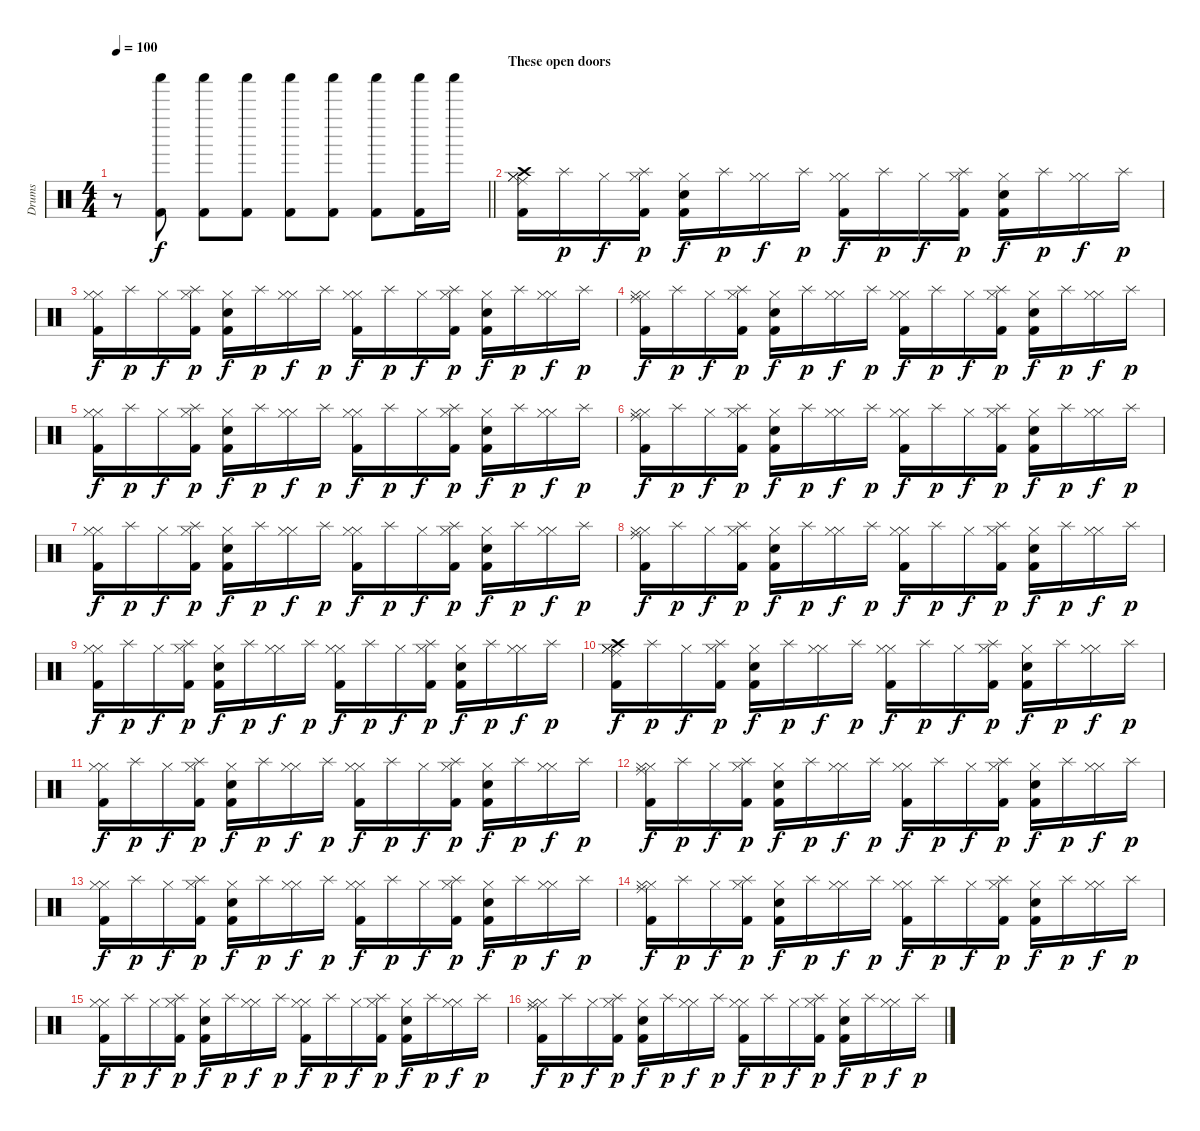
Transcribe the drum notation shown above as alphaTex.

\track ("Drums" "Drums") {instrument percussion}
\staff {score}
\articulation defaults
\ts (4 4)
\tempo 100
\clef neutral
\barLineRight lightlight
\ks c
r.8{dy p} ("Shaker (hit)" "Kick (hit) 2").8{dy f} ("Shaker (hit)" "Kick (hit) 2").8 ("Shaker (hit)" "Kick (hit) 2").8 ("Shaker (hit)" "Kick (hit) 2").8 ("Shaker (hit)" "Kick (hit) 2").8 ("Shaker (hit)" "Kick (hit) 2").8 ("Shaker (hit)" "Kick (hit) 2").16 "Shaker (hit)".16 |
\section ("" "These open doors")
("Ride (middle)" "Crash high (hit)" "Hi-Hat (closed)" "Hi-Hat (closed)" "Kick (hit) 2").16 "Splash (hit)".16{dy p} "Hi-Hat (closed)".16{dy f} ("Splash (hit)" "Hi-Hat (closed)" "Kick (hit) 2").16{dy p} ("Electric Snare (hit)" "Hi-Hat (closed)" "Kick (hit) 2").16{dy f} "Splash (hit)".16{dy p} ("Hi-Hat (closed)" "Hi-Hat (closed)").16{dy f} "Splash (hit)".16{dy p} ("Hi-Hat (closed)" "Hi-Hat (closed)" "Kick (hit) 2").16{dy f} "Splash (hit)".16{dy p} "Hi-Hat (closed)".16{dy f} ("Splash (hit)" "Hi-Hat (closed)" "Kick (hit) 2").16{dy p} ("Electric Snare (hit)" "Hi-Hat (closed)" "Kick (hit) 2").16{dy f} "Splash (hit)".16{dy p} ("Hi-Hat (closed)" "Hi-Hat (closed)").16{dy f} "Splash (hit)".16{dy p} |
("Hi-Hat (closed)" "Hi-Hat (closed)" "Kick (hit) 2").16{dy f} "Splash (hit)".16{dy p} "Hi-Hat (closed)".16{dy f} ("Splash (hit)" "Hi-Hat (closed)" "Kick (hit) 2").16{dy p} ("Electric Snare (hit)" "Hi-Hat (closed)" "Kick (hit) 2").16{dy f} "Splash (hit)".16{dy p} ("Hi-Hat (closed)" "Hi-Hat (closed)").16{dy f} "Splash (hit)".16{dy p} ("Hi-Hat (closed)" "Hi-Hat (closed)" "Kick (hit) 2").16{dy f} "Splash (hit)".16{dy p} "Hi-Hat (closed)".16{dy f} ("Splash (hit)" "Hi-Hat (closed)" "Kick (hit) 2").16{dy p} ("Electric Snare (hit)" "Hi-Hat (closed)" "Kick (hit) 2").16{dy f} "Splash (hit)".16{dy p} ("Hi-Hat (closed)" "Hi-Hat (closed)").16{dy f} "Splash (hit)".16{dy p} |
("Ride (middle)" "Hi-Hat (closed)" "Hi-Hat (closed)" "Kick (hit) 2").16{dy f} "Splash (hit)".16{dy p} "Hi-Hat (closed)".16{dy f} ("Splash (hit)" "Hi-Hat (closed)" "Kick (hit) 2").16{dy p} ("Electric Snare (hit)" "Hi-Hat (closed)" "Kick (hit) 2").16{dy f} "Splash (hit)".16{dy p} ("Hi-Hat (closed)" "Hi-Hat (closed)").16{dy f} "Splash (hit)".16{dy p} ("Hi-Hat (closed)" "Hi-Hat (closed)" "Kick (hit) 2").16{dy f} "Splash (hit)".16{dy p} "Hi-Hat (closed)".16{dy f} ("Splash (hit)" "Hi-Hat (closed)" "Kick (hit) 2").16{dy p} ("Electric Snare (hit)" "Hi-Hat (closed)" "Kick (hit) 2").16{dy f} "Splash (hit)".16{dy p} ("Hi-Hat (closed)" "Hi-Hat (closed)").16{dy f} "Splash (hit)".16{dy p} |
("Hi-Hat (closed)" "Hi-Hat (closed)" "Kick (hit) 2").16{dy f} "Splash (hit)".16{dy p} "Hi-Hat (closed)".16{dy f} ("Splash (hit)" "Hi-Hat (closed)" "Kick (hit) 2").16{dy p} ("Electric Snare (hit)" "Hi-Hat (closed)" "Kick (hit) 2").16{dy f} "Splash (hit)".16{dy p} ("Hi-Hat (closed)" "Hi-Hat (closed)").16{dy f} "Splash (hit)".16{dy p} ("Hi-Hat (closed)" "Hi-Hat (closed)" "Kick (hit) 2").16{dy f} "Splash (hit)".16{dy p} "Hi-Hat (closed)".16{dy f} ("Splash (hit)" "Hi-Hat (closed)" "Kick (hit) 2").16{dy p} ("Electric Snare (hit)" "Hi-Hat (closed)" "Kick (hit) 2").16{dy f} "Splash (hit)".16{dy p} ("Hi-Hat (closed)" "Hi-Hat (closed)").16{dy f} "Splash (hit)".16{dy p} |
("Ride (middle)" "Hi-Hat (closed)" "Hi-Hat (closed)" "Kick (hit) 2").16{dy f} "Splash (hit)".16{dy p} "Hi-Hat (closed)".16{dy f} ("Splash (hit)" "Hi-Hat (closed)" "Kick (hit) 2").16{dy p} ("Electric Snare (hit)" "Hi-Hat (closed)" "Kick (hit) 2").16{dy f} "Splash (hit)".16{dy p} ("Hi-Hat (closed)" "Hi-Hat (closed)").16{dy f} "Splash (hit)".16{dy p} ("Hi-Hat (closed)" "Hi-Hat (closed)" "Kick (hit) 2").16{dy f} "Splash (hit)".16{dy p} "Hi-Hat (closed)".16{dy f} ("Splash (hit)" "Hi-Hat (closed)" "Kick (hit) 2").16{dy p} ("Electric Snare (hit)" "Hi-Hat (closed)" "Kick (hit) 2").16{dy f} "Splash (hit)".16{dy p} ("Hi-Hat (closed)" "Hi-Hat (closed)").16{dy f} "Splash (hit)".16{dy p} |
("Hi-Hat (closed)" "Hi-Hat (closed)" "Kick (hit) 2").16{dy f} "Splash (hit)".16{dy p} "Hi-Hat (closed)".16{dy f} ("Splash (hit)" "Hi-Hat (closed)" "Kick (hit) 2").16{dy p} ("Electric Snare (hit)" "Hi-Hat (closed)" "Kick (hit) 2").16{dy f} "Splash (hit)".16{dy p} ("Hi-Hat (closed)" "Hi-Hat (closed)").16{dy f} "Splash (hit)".16{dy p} ("Hi-Hat (closed)" "Hi-Hat (closed)" "Kick (hit) 2").16{dy f} "Splash (hit)".16{dy p} "Hi-Hat (closed)".16{dy f} ("Splash (hit)" "Hi-Hat (closed)" "Kick (hit) 2").16{dy p} ("Electric Snare (hit)" "Hi-Hat (closed)" "Kick (hit) 2").16{dy f} "Splash (hit)".16{dy p} ("Hi-Hat (closed)" "Hi-Hat (closed)").16{dy f} "Splash (hit)".16{dy p} |
("Ride (middle)" "Hi-Hat (closed)" "Hi-Hat (closed)" "Kick (hit) 2").16{dy f} "Splash (hit)".16{dy p} "Hi-Hat (closed)".16{dy f} ("Splash (hit)" "Hi-Hat (closed)" "Kick (hit) 2").16{dy p} ("Electric Snare (hit)" "Hi-Hat (closed)" "Kick (hit) 2").16{dy f} "Splash (hit)".16{dy p} ("Hi-Hat (closed)" "Hi-Hat (closed)").16{dy f} "Splash (hit)".16{dy p} ("Hi-Hat (closed)" "Hi-Hat (closed)" "Kick (hit) 2").16{dy f} "Splash (hit)".16{dy p} "Hi-Hat (closed)".16{dy f} ("Splash (hit)" "Hi-Hat (closed)" "Kick (hit) 2").16{dy p} ("Electric Snare (hit)" "Hi-Hat (closed)" "Kick (hit) 2").16{dy f} "Splash (hit)".16{dy p} ("Hi-Hat (closed)" "Hi-Hat (closed)").16{dy f} "Splash (hit)".16{dy p} |
("Hi-Hat (closed)" "Hi-Hat (closed)" "Kick (hit) 2").16{dy f} "Splash (hit)".16{dy p} "Hi-Hat (closed)".16{dy f} ("Splash (hit)" "Hi-Hat (closed)" "Kick (hit) 2").16{dy p} ("Electric Snare (hit)" "Hi-Hat (closed)" "Kick (hit) 2").16{dy f} "Splash (hit)".16{dy p} ("Hi-Hat (closed)" "Hi-Hat (closed)").16{dy f} "Splash (hit)".16{dy p} ("Hi-Hat (closed)" "Hi-Hat (closed)" "Kick (hit) 2").16{dy f} "Splash (hit)".16{dy p} "Hi-Hat (closed)".16{dy f} ("Splash (hit)" "Hi-Hat (closed)" "Kick (hit) 2").16{dy p} ("Electric Snare (hit)" "Hi-Hat (closed)" "Kick (hit) 2").16{dy f} "Splash (hit)".16{dy p} ("Hi-Hat (closed)" "Hi-Hat (closed)").16{dy f} "Splash (hit)".16{dy p} |
("Ride (middle)" "Crash high (hit)" "Hi-Hat (closed)" "Hi-Hat (closed)" "Kick (hit) 2").16{dy f} "Splash (hit)".16{dy p} "Hi-Hat (closed)".16{dy f} ("Splash (hit)" "Hi-Hat (closed)" "Kick (hit) 2").16{dy p} ("Electric Snare (hit)" "Hi-Hat (closed)" "Kick (hit) 2").16{dy f} "Splash (hit)".16{dy p} ("Hi-Hat (closed)" "Hi-Hat (closed)").16{dy f} "Splash (hit)".16{dy p} ("Hi-Hat (closed)" "Hi-Hat (closed)" "Kick (hit) 2").16{dy f} "Splash (hit)".16{dy p} "Hi-Hat (closed)".16{dy f} ("Splash (hit)" "Hi-Hat (closed)" "Kick (hit) 2").16{dy p} ("Electric Snare (hit)" "Hi-Hat (closed)" "Kick (hit) 2").16{dy f} "Splash (hit)".16{dy p} ("Hi-Hat (closed)" "Hi-Hat (closed)").16{dy f} "Splash (hit)".16{dy p} |
("Hi-Hat (closed)" "Hi-Hat (closed)" "Kick (hit) 2").16{dy f} "Splash (hit)".16{dy p} "Hi-Hat (closed)".16{dy f} ("Splash (hit)" "Hi-Hat (closed)" "Kick (hit) 2").16{dy p} ("Electric Snare (hit)" "Hi-Hat (closed)" "Kick (hit) 2").16{dy f} "Splash (hit)".16{dy p} ("Hi-Hat (closed)" "Hi-Hat (closed)").16{dy f} "Splash (hit)".16{dy p} ("Hi-Hat (closed)" "Hi-Hat (closed)" "Kick (hit) 2").16{dy f} "Splash (hit)".16{dy p} "Hi-Hat (closed)".16{dy f} ("Splash (hit)" "Hi-Hat (closed)" "Kick (hit) 2").16{dy p} ("Electric Snare (hit)" "Hi-Hat (closed)" "Kick (hit) 2").16{dy f} "Splash (hit)".16{dy p} ("Hi-Hat (closed)" "Hi-Hat (closed)").16{dy f} "Splash (hit)".16{dy p} |
("Ride (middle)" "Hi-Hat (closed)" "Hi-Hat (closed)" "Kick (hit) 2").16{dy f} "Splash (hit)".16{dy p} "Hi-Hat (closed)".16{dy f} ("Splash (hit)" "Hi-Hat (closed)" "Kick (hit) 2").16{dy p} ("Electric Snare (hit)" "Hi-Hat (closed)" "Kick (hit) 2").16{dy f} "Splash (hit)".16{dy p} ("Hi-Hat (closed)" "Hi-Hat (closed)").16{dy f} "Splash (hit)".16{dy p} ("Hi-Hat (closed)" "Hi-Hat (closed)" "Kick (hit) 2").16{dy f} "Splash (hit)".16{dy p} "Hi-Hat (closed)".16{dy f} ("Splash (hit)" "Hi-Hat (closed)" "Kick (hit) 2").16{dy p} ("Electric Snare (hit)" "Hi-Hat (closed)" "Kick (hit) 2").16{dy f} "Splash (hit)".16{dy p} ("Hi-Hat (closed)" "Hi-Hat (closed)").16{dy f} "Splash (hit)".16{dy p} |
("Hi-Hat (closed)" "Hi-Hat (closed)" "Kick (hit) 2").16{dy f} "Splash (hit)".16{dy p} "Hi-Hat (closed)".16{dy f} ("Splash (hit)" "Hi-Hat (closed)" "Kick (hit) 2").16{dy p} ("Electric Snare (hit)" "Hi-Hat (closed)" "Kick (hit) 2").16{dy f} "Splash (hit)".16{dy p} ("Hi-Hat (closed)" "Hi-Hat (closed)").16{dy f} "Splash (hit)".16{dy p} ("Hi-Hat (closed)" "Hi-Hat (closed)" "Kick (hit) 2").16{dy f} "Splash (hit)".16{dy p} "Hi-Hat (closed)".16{dy f} ("Splash (hit)" "Hi-Hat (closed)" "Kick (hit) 2").16{dy p} ("Electric Snare (hit)" "Hi-Hat (closed)" "Kick (hit) 2").16{dy f} "Splash (hit)".16{dy p} ("Hi-Hat (closed)" "Hi-Hat (closed)").16{dy f} "Splash (hit)".16{dy p} |
("Ride (middle)" "Hi-Hat (closed)" "Hi-Hat (closed)" "Kick (hit) 2").16{dy f} "Splash (hit)".16{dy p} "Hi-Hat (closed)".16{dy f} ("Splash (hit)" "Hi-Hat (closed)" "Kick (hit) 2").16{dy p} ("Electric Snare (hit)" "Hi-Hat (closed)" "Kick (hit) 2").16{dy f} "Splash (hit)".16{dy p} ("Hi-Hat (closed)" "Hi-Hat (closed)").16{dy f} "Splash (hit)".16{dy p} ("Hi-Hat (closed)" "Hi-Hat (closed)" "Kick (hit) 2").16{dy f} "Splash (hit)".16{dy p} "Hi-Hat (closed)".16{dy f} ("Splash (hit)" "Hi-Hat (closed)" "Kick (hit) 2").16{dy p} ("Electric Snare (hit)" "Hi-Hat (closed)" "Kick (hit) 2").16{dy f} "Splash (hit)".16{dy p} ("Hi-Hat (closed)" "Hi-Hat (closed)").16{dy f} "Splash (hit)".16{dy p} |
("Hi-Hat (closed)" "Hi-Hat (closed)" "Kick (hit) 2").16{dy f} "Splash (hit)".16{dy p} "Hi-Hat (closed)".16{dy f} ("Splash (hit)" "Hi-Hat (closed)" "Kick (hit) 2").16{dy p} ("Electric Snare (hit)" "Hi-Hat (closed)" "Kick (hit) 2").16{dy f} "Splash (hit)".16{dy p} ("Hi-Hat (closed)" "Hi-Hat (closed)").16{dy f} "Splash (hit)".16{dy p} ("Hi-Hat (closed)" "Hi-Hat (closed)" "Kick (hit) 2").16{dy f} "Splash (hit)".16{dy p} "Hi-Hat (closed)".16{dy f} ("Splash (hit)" "Hi-Hat (closed)" "Kick (hit) 2").16{dy p} ("Electric Snare (hit)" "Hi-Hat (closed)" "Kick (hit) 2").16{dy f} "Splash (hit)".16{dy p} ("Hi-Hat (closed)" "Hi-Hat (closed)").16{dy f} "Splash (hit)".16{dy p} |
("Ride (middle)" "Hi-Hat (closed)" "Hi-Hat (closed)" "Kick (hit) 2").16{dy f} "Splash (hit)".16{dy p} "Hi-Hat (closed)".16{dy f} ("Splash (hit)" "Hi-Hat (closed)" "Kick (hit) 2").16{dy p} ("Electric Snare (hit)" "Hi-Hat (closed)" "Kick (hit) 2").16{dy f} "Splash (hit)".16{dy p} ("Hi-Hat (closed)" "Hi-Hat (closed)").16{dy f} "Splash (hit)".16{dy p} ("Hi-Hat (closed)" "Hi-Hat (closed)" "Kick (hit) 2").16{dy f} "Splash (hit)".16{dy p} "Hi-Hat (closed)".16{dy f} ("Splash (hit)" "Hi-Hat (closed)" "Kick (hit) 2").16{dy p} ("Electric Snare (hit)" "Hi-Hat (closed)" "Kick (hit) 2").16{dy f} "Splash (hit)".16{dy p} ("Hi-Hat (closed)" "Hi-Hat (closed)").16{dy f} "Splash (hit)".16{dy p}
